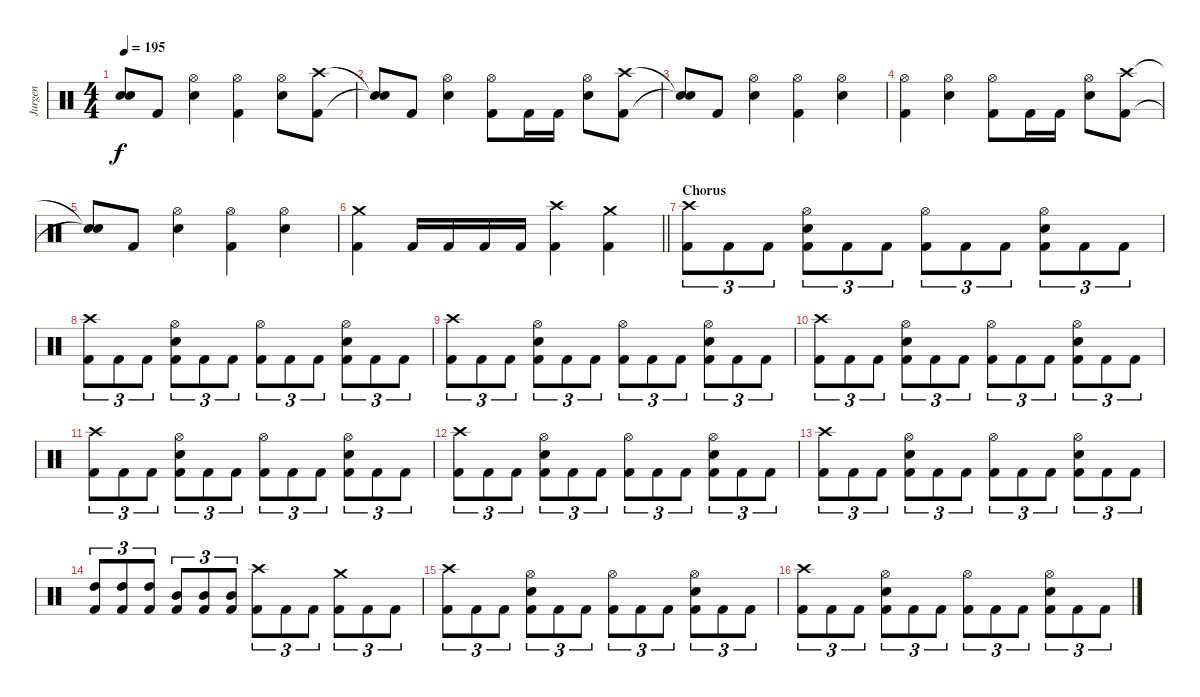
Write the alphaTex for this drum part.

\track ("Jurgen" "Jurgen") {instrument percussion}
\staff {score}
\articulation defaults
\ts (4 4)
\tempo 195
\clef neutral
\ks c
("Snare (hit)"{t} "Snare (hit)"{t}).8{dy f} "Kick (hit) 2".8 ("Hi-Hat (open)" "Snare (hit) 2").4 ("Hi-Hat (open)" "Kick (hit) 2").4 ("Hi-Hat (open)" "Snare (hit) 2").8 ("Crash high (hit)" "Kick (hit) 2").8 |
("Snare (hit)"{t} "Snare (hit)"{t}).8 "Kick (hit) 2".8 ("Hi-Hat (open)" "Snare (hit) 2").4 ("Hi-Hat (open)" "Kick (hit) 2").8 "Kick (hit) 2".16 "Kick (hit) 2".16 ("Hi-Hat (open)" "Snare (hit) 2").8 ("Crash high (hit)" "Kick (hit) 2").8 |
("Snare (hit)"{t} "Snare (hit)"{t}).8 "Kick (hit) 2".8 ("Hi-Hat (open)" "Snare (hit) 2").4 ("Hi-Hat (open)" "Kick (hit) 2").4 ("Hi-Hat (open)" "Snare (hit) 2").4 |
("Hi-Hat (open)" "Kick (hit) 2").4 ("Hi-Hat (open)" "Snare (hit) 2").4 ("Hi-Hat (open)" "Kick (hit) 2").8 "Kick (hit) 2".16 "Kick (hit) 2".16 ("Hi-Hat (open)" "Snare (hit) 2").8 ("Crash high (hit)" "Kick (hit) 2").8 |
("Snare (hit)"{t} "Snare (hit)"{t}).8 "Kick (hit) 2".8 ("Hi-Hat (open)" "Snare (hit) 2").4 ("Hi-Hat (open)" "Kick (hit) 2").4 ("Hi-Hat (open)" "Snare (hit) 2").4 |
\barLineRight lightlight
("Crash medium (hit)" "Kick (hit) 2").4 "Kick (hit) 2".16 "Kick (hit) 2".16 "Kick (hit) 2".16 "Kick (hit) 2".16 ("Crash high (hit)" "Kick (hit) 2").4 ("Crash medium (hit)" "Kick (hit) 2").4 |
\section ("" "Chorus")
("Crash high (hit)" "Kick (hit) 2").8{tu (3 2)} "Kick (hit) 2".8{tu (3 2)} "Kick (hit) 2".8{tu (3 2)} ("Hi-Hat (open)" "Snare (hit) 2" "Kick (hit) 2").8{tu (3 2)} "Kick (hit) 2".8{tu (3 2)} "Kick (hit) 2".8{tu (3 2)} ("Hi-Hat (open)" "Kick (hit) 2").8{tu (3 2)} "Kick (hit) 2".8{tu (3 2)} "Kick (hit) 2".8{tu (3 2)} ("Hi-Hat (open)" "Snare (hit) 2" "Kick (hit) 2").8{tu (3 2)} "Kick (hit) 2".8{tu (3 2)} "Kick (hit) 2".8{tu (3 2)} |
("Crash high (hit)" "Kick (hit) 2").8{tu (3 2)} "Kick (hit) 2".8{tu (3 2)} "Kick (hit) 2".8{tu (3 2)} ("Hi-Hat (open)" "Snare (hit) 2" "Kick (hit) 2").8{tu (3 2)} "Kick (hit) 2".8{tu (3 2)} "Kick (hit) 2".8{tu (3 2)} ("Hi-Hat (open)" "Kick (hit) 2").8{tu (3 2)} "Kick (hit) 2".8{tu (3 2)} "Kick (hit) 2".8{tu (3 2)} ("Hi-Hat (open)" "Snare (hit) 2" "Kick (hit) 2").8{tu (3 2)} "Kick (hit) 2".8{tu (3 2)} "Kick (hit) 2".8{tu (3 2)} |
("Crash high (hit)" "Kick (hit) 2").8{tu (3 2)} "Kick (hit) 2".8{tu (3 2)} "Kick (hit) 2".8{tu (3 2)} ("Hi-Hat (open)" "Snare (hit) 2" "Kick (hit) 2").8{tu (3 2)} "Kick (hit) 2".8{tu (3 2)} "Kick (hit) 2".8{tu (3 2)} ("Hi-Hat (open)" "Kick (hit) 2").8{tu (3 2)} "Kick (hit) 2".8{tu (3 2)} "Kick (hit) 2".8{tu (3 2)} ("Hi-Hat (open)" "Snare (hit) 2" "Kick (hit) 2").8{tu (3 2)} "Kick (hit) 2".8{tu (3 2)} "Kick (hit) 2".8{tu (3 2)} |
("Crash high (hit)" "Kick (hit) 2").8{tu (3 2)} "Kick (hit) 2".8{tu (3 2)} "Kick (hit) 2".8{tu (3 2)} ("Hi-Hat (open)" "Snare (hit) 2" "Kick (hit) 2").8{tu (3 2)} "Kick (hit) 2".8{tu (3 2)} "Kick (hit) 2".8{tu (3 2)} ("Hi-Hat (open)" "Kick (hit) 2").8{tu (3 2)} "Kick (hit) 2".8{tu (3 2)} "Kick (hit) 2".8{tu (3 2)} ("Hi-Hat (open)" "Snare (hit) 2" "Kick (hit) 2").8{tu (3 2)} "Kick (hit) 2".8{tu (3 2)} "Kick (hit) 2".8{tu (3 2)} |
("Crash high (hit)" "Kick (hit) 2").8{tu (3 2)} "Kick (hit) 2".8{tu (3 2)} "Kick (hit) 2".8{tu (3 2)} ("Hi-Hat (open)" "Snare (hit) 2" "Kick (hit) 2").8{tu (3 2)} "Kick (hit) 2".8{tu (3 2)} "Kick (hit) 2".8{tu (3 2)} ("Hi-Hat (open)" "Kick (hit) 2").8{tu (3 2)} "Kick (hit) 2".8{tu (3 2)} "Kick (hit) 2".8{tu (3 2)} ("Hi-Hat (open)" "Snare (hit) 2" "Kick (hit) 2").8{tu (3 2)} "Kick (hit) 2".8{tu (3 2)} "Kick (hit) 2".8{tu (3 2)} |
("Crash high (hit)" "Kick (hit) 2").8{tu (3 2)} "Kick (hit) 2".8{tu (3 2)} "Kick (hit) 2".8{tu (3 2)} ("Hi-Hat (open)" "Snare (hit) 2" "Kick (hit) 2").8{tu (3 2)} "Kick (hit) 2".8{tu (3 2)} "Kick (hit) 2".8{tu (3 2)} ("Hi-Hat (open)" "Kick (hit) 2").8{tu (3 2)} "Kick (hit) 2".8{tu (3 2)} "Kick (hit) 2".8{tu (3 2)} ("Hi-Hat (open)" "Snare (hit) 2" "Kick (hit) 2").8{tu (3 2)} "Kick (hit) 2".8{tu (3 2)} "Kick (hit) 2".8{tu (3 2)} |
("Crash high (hit)" "Kick (hit) 2").8{tu (3 2)} "Kick (hit) 2".8{tu (3 2)} "Kick (hit) 2".8{tu (3 2)} ("Hi-Hat (open)" "Snare (hit) 2" "Kick (hit) 2").8{tu (3 2)} "Kick (hit) 2".8{tu (3 2)} "Kick (hit) 2".8{tu (3 2)} ("Hi-Hat (open)" "Kick (hit) 2").8{tu (3 2)} "Kick (hit) 2".8{tu (3 2)} "Kick (hit) 2".8{tu (3 2)} ("Hi-Hat (open)" "Snare (hit) 2" "Kick (hit) 2").8{tu (3 2)} "Kick (hit) 2".8{tu (3 2)} "Kick (hit) 2".8{tu (3 2)} |
("High Tom (hit)" "Kick (hit) 2").8{tu (3 2)} ("High Tom (hit)" "Kick (hit) 2").8{tu (3 2)} ("High Tom (hit)" "Kick (hit) 2").8{tu (3 2)} ("Mid Tom (hit)" "Kick (hit) 2").8{tu (3 2)} ("Mid Tom (hit)" "Kick (hit) 2").8{tu (3 2)} ("Mid Tom (hit)" "Kick (hit) 2").8{tu (3 2)} ("Crash high (hit)" "Kick (hit) 2").8{tu (3 2)} "Kick (hit) 2".8{tu (3 2)} "Kick (hit) 2".8{tu (3 2)} ("Crash medium (hit)" "Kick (hit) 2").8{tu (3 2)} "Kick (hit) 2".8{tu (3 2)} "Kick (hit) 2".8{tu (3 2)} |
("Crash high (hit)" "Kick (hit) 2").8{tu (3 2)} "Kick (hit) 2".8{tu (3 2)} "Kick (hit) 2".8{tu (3 2)} ("Hi-Hat (open)" "Snare (hit) 2" "Kick (hit) 2").8{tu (3 2)} "Kick (hit) 2".8{tu (3 2)} "Kick (hit) 2".8{tu (3 2)} ("Hi-Hat (open)" "Kick (hit) 2").8{tu (3 2)} "Kick (hit) 2".8{tu (3 2)} "Kick (hit) 2".8{tu (3 2)} ("Hi-Hat (open)" "Snare (hit) 2" "Kick (hit) 2").8{tu (3 2)} "Kick (hit) 2".8{tu (3 2)} "Kick (hit) 2".8{tu (3 2)} |
("Crash high (hit)" "Kick (hit) 2").8{tu (3 2)} "Kick (hit) 2".8{tu (3 2)} "Kick (hit) 2".8{tu (3 2)} ("Hi-Hat (open)" "Snare (hit) 2" "Kick (hit) 2").8{tu (3 2)} "Kick (hit) 2".8{tu (3 2)} "Kick (hit) 2".8{tu (3 2)} ("Hi-Hat (open)" "Kick (hit) 2").8{tu (3 2)} "Kick (hit) 2".8{tu (3 2)} "Kick (hit) 2".8{tu (3 2)} ("Hi-Hat (open)" "Snare (hit) 2" "Kick (hit) 2").8{tu (3 2)} "Kick (hit) 2".8{tu (3 2)} "Kick (hit) 2".8{tu (3 2)}
